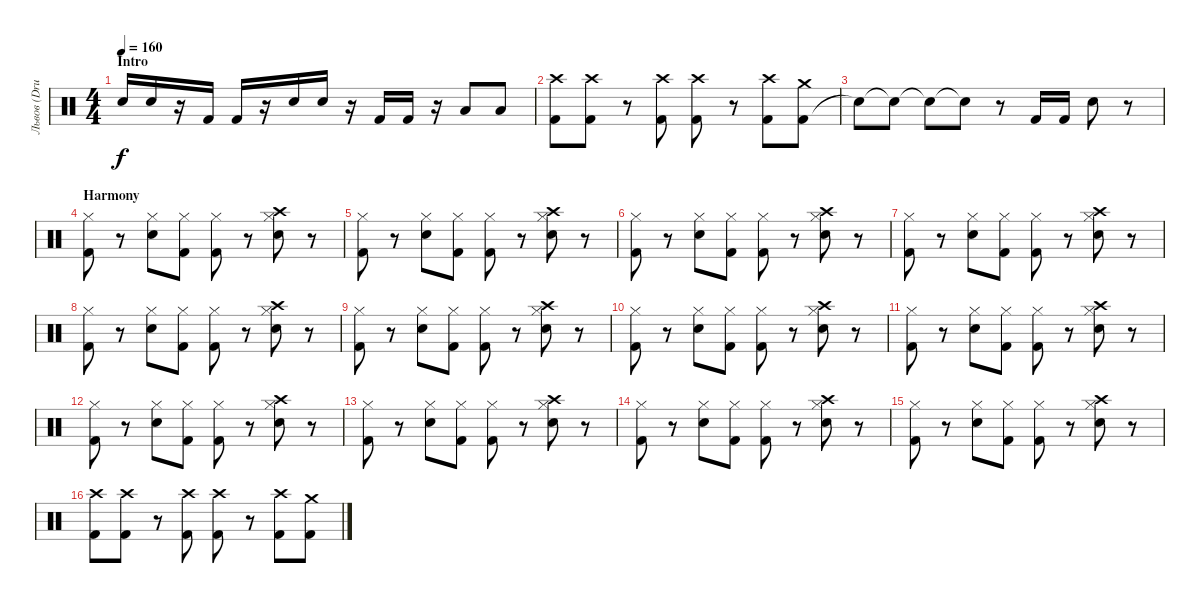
\track ("Львов (Drums)" "Львов (Dru") {instrument percussion}
\staff {score}
\articulation defaults
\ts (4 4)
\section ("" "Intro ")
\tempo 160
\clef neutral
\ks c "Snare (hit) 2".16{dy f} "Snare (hit) 2".16
r.16 "Kick (hit) 2".16 "Kick (hit) 2".16 r.16 "Snare (hit) 2".16 "Snare (hit) 2".16 r.16 "Kick (hit) 2".16 "Kick (hit) 2".16 r.16 "Low Tom (hit)".8 "Low Tom (hit)".8 |
("Kick (hit) 2" "Crash high (hit)").8 ("Kick (hit) 2" "Crash high (hit)").8 r.8 ("Kick (hit) 2" "Crash high (hit)").8 ("Kick (hit) 2" "Crash high (hit)").8 r.8 ("Kick (hit) 2" "Crash high (hit)").8 ("Kick (hit) 2" "Crash medium (hit)").8 |
"Snare (hit)"{t}.8 "Snare (hit)"{t}.8 "Snare (hit)"{t}.8 "Snare (hit)"{t}.8 r.8 "Kick (hit) 2".16 "Kick (hit) 2".16 "Electric Snare (hit)".8 r.8 |
\section ("" "Harmony")
("Kick (hit) 2" "Hi-Hat (closed)").8 r.8 ("Electric Snare (hit)" "Hi-Hat (closed)").8 ("Kick (hit) 2" "Hi-Hat (closed)").8 ("Kick (hit) 2" "Hi-Hat (closed)").8 r.8 ("Electric Snare (hit)" "Crash high (hit)" "Hi-Hat (closed)").8 r.8 |
("Kick (hit) 2" "Hi-Hat (closed)").8 r.8 ("Electric Snare (hit)" "Hi-Hat (closed)").8 ("Kick (hit) 2" "Hi-Hat (closed)").8 ("Kick (hit) 2" "Hi-Hat (closed)").8 r.8 ("Electric Snare (hit)" "Crash high (hit)" "Hi-Hat (closed)").8 r.8 |
("Kick (hit) 2" "Hi-Hat (closed)").8 r.8 ("Electric Snare (hit)" "Hi-Hat (closed)").8 ("Kick (hit) 2" "Hi-Hat (closed)").8 ("Kick (hit) 2" "Hi-Hat (closed)").8 r.8 ("Electric Snare (hit)" "Crash high (hit)" "Hi-Hat (closed)").8 r.8 |
("Kick (hit) 2" "Hi-Hat (closed)").8 r.8 ("Electric Snare (hit)" "Hi-Hat (closed)").8 ("Kick (hit) 2" "Hi-Hat (closed)").8 ("Kick (hit) 2" "Hi-Hat (closed)").8 r.8 ("Electric Snare (hit)" "Crash high (hit)" "Hi-Hat (closed)").8 r.8 |
("Kick (hit) 2" "Hi-Hat (closed)").8 r.8 ("Electric Snare (hit)" "Hi-Hat (closed)").8 ("Kick (hit) 2" "Hi-Hat (closed)").8 ("Kick (hit) 2" "Hi-Hat (closed)").8 r.8 ("Electric Snare (hit)" "Crash high (hit)" "Hi-Hat (closed)").8 r.8 |
("Kick (hit) 2" "Hi-Hat (closed)").8 r.8 ("Electric Snare (hit)" "Hi-Hat (closed)").8 ("Kick (hit) 2" "Hi-Hat (closed)").8 ("Kick (hit) 2" "Hi-Hat (closed)").8 r.8 ("Electric Snare (hit)" "Crash high (hit)" "Hi-Hat (closed)").8 r.8 |
("Kick (hit) 2" "Hi-Hat (closed)").8 r.8 ("Electric Snare (hit)" "Hi-Hat (closed)").8 ("Kick (hit) 2" "Hi-Hat (closed)").8 ("Kick (hit) 2" "Hi-Hat (closed)").8 r.8 ("Electric Snare (hit)" "Crash high (hit)" "Hi-Hat (closed)").8 r.8 |
("Kick (hit) 2" "Hi-Hat (closed)").8 r.8 ("Electric Snare (hit)" "Hi-Hat (closed)").8 ("Kick (hit) 2" "Hi-Hat (closed)").8 ("Kick (hit) 2" "Hi-Hat (closed)").8 r.8 ("Electric Snare (hit)" "Crash high (hit)" "Hi-Hat (closed)").8 r.8 |
("Kick (hit) 2" "Hi-Hat (closed)").8 r.8 ("Electric Snare (hit)" "Hi-Hat (closed)").8 ("Kick (hit) 2" "Hi-Hat (closed)").8 ("Kick (hit) 2" "Hi-Hat (closed)").8 r.8 ("Electric Snare (hit)" "Crash high (hit)" "Hi-Hat (closed)").8 r.8 |
("Kick (hit) 2" "Hi-Hat (closed)").8 r.8 ("Electric Snare (hit)" "Hi-Hat (closed)").8 ("Kick (hit) 2" "Hi-Hat (closed)").8 ("Kick (hit) 2" "Hi-Hat (closed)").8 r.8 ("Electric Snare (hit)" "Crash high (hit)" "Hi-Hat (closed)").8 r.8 |
("Kick (hit) 2" "Hi-Hat (closed)").8 r.8 ("Electric Snare (hit)" "Hi-Hat (closed)").8 ("Kick (hit) 2" "Hi-Hat (closed)").8 ("Kick (hit) 2" "Hi-Hat (closed)").8 r.8 ("Electric Snare (hit)" "Crash high (hit)" "Hi-Hat (closed)").8 r.8 |
("Kick (hit) 2" "Hi-Hat (closed)").8 r.8 ("Electric Snare (hit)" "Hi-Hat (closed)").8 ("Kick (hit) 2" "Hi-Hat (closed)").8 ("Kick (hit) 2" "Hi-Hat (closed)").8 r.8 ("Electric Snare (hit)" "Crash high (hit)" "Hi-Hat (closed)").8 r.8 |
("Kick (hit) 2" "Crash high (hit)").8 ("Kick (hit) 2" "Crash high (hit)").8 r.8 ("Kick (hit) 2" "Crash high (hit)").8 ("Kick (hit) 2" "Crash high (hit)").8 r.8 ("Kick (hit) 2" "Crash high (hit)").8 ("Kick (hit) 2" "Crash medium (hit)").8
